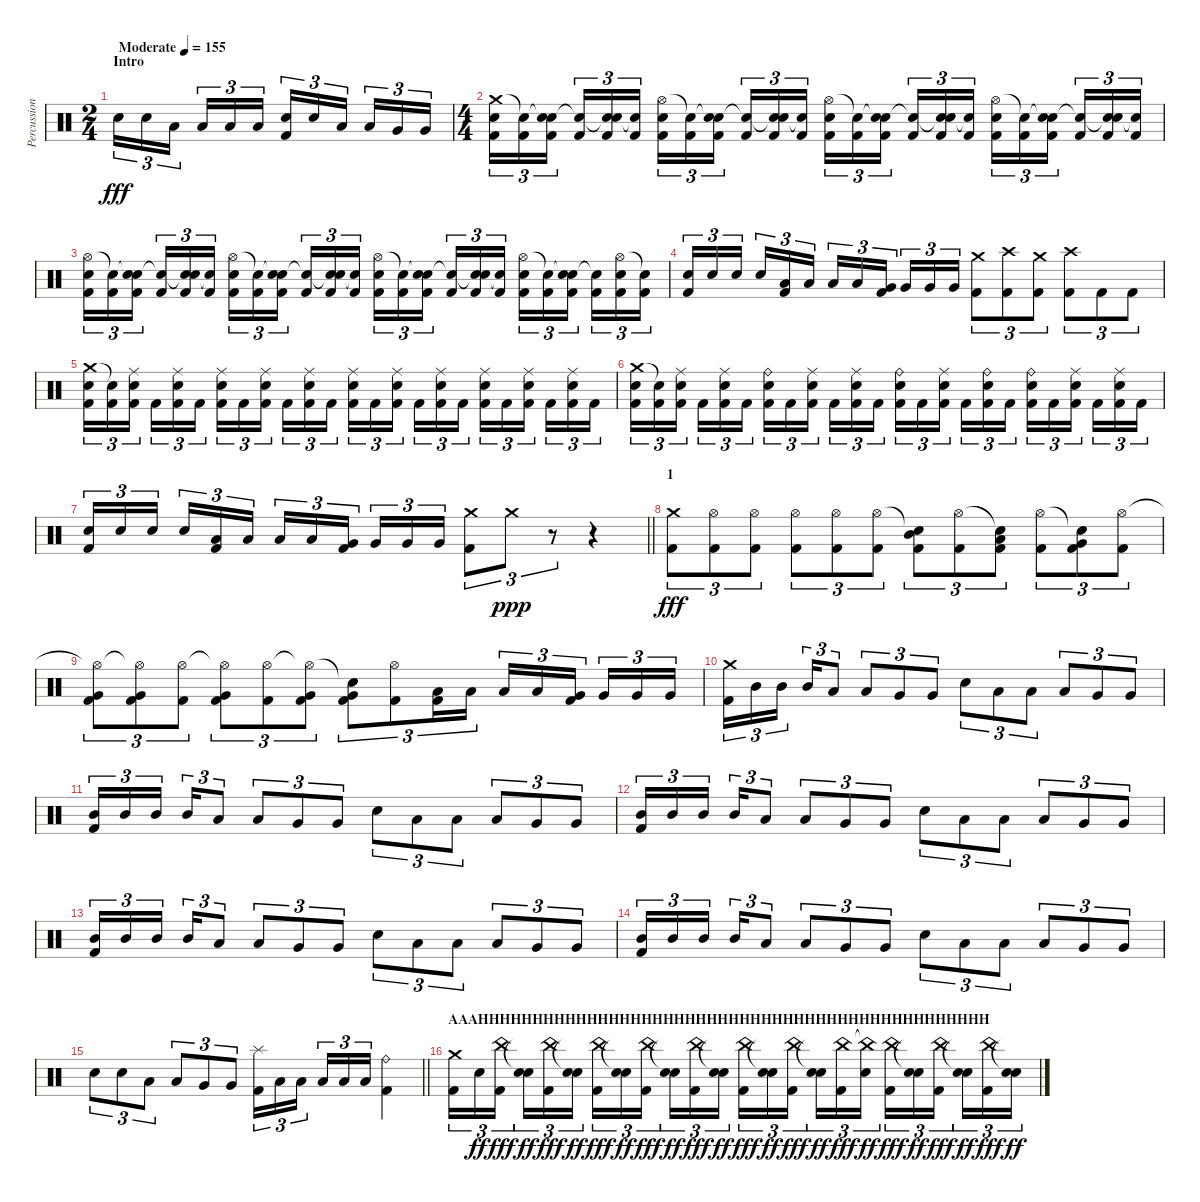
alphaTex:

\track ("Percussion" "Percussion") {instrument percussion}
\staff {score}
\articulation defaults
\ts (2 4)
\section ("" "Intro")
\tempo (155 "Moderate")
\clef neutral
\ks c "Electric Snare (hit)".16{tu (3 2) dy fff} "Electric Snare (hit)".16{tu (3 2)} "Low Tom (hit)".16{tu (3 2) beam splitsecondary} "Low Tom (hit)".16{tu (3 2)} "Low Tom (hit)".16{tu (3 2)} "Low Tom (hit)".16{tu (3 2)}
("Electric Snare (hit)" "Kick (hit) 2").16{tu (3 2)} "Electric Snare (hit)".16{tu (3 2)} "Low Tom (hit)".16{tu (3 2) beam splitsecondary} "Low Tom (hit)".16{tu (3 2)} "Very Low Tom (hit)".16{tu (3 2)} "Very Low Tom (hit)".16{tu (3 2)} |
\ts (4 4)
("Crash medium (hit)" "Electric Snare (hit)" "Kick (hit) 2").16{tu (3 2)} ("Snare (hit)"{t} "Kick (hit) 2").16{tu (3 2)} ("Snare (hit)"{t} "Electric Snare (hit)" "Kick (hit) 2").16{tu (3 2) beam splitsecondary} ("Snare (hit)"{t} "Kick (hit) 2").16{tu (3 2)} ("Snare (hit)"{t} "Electric Snare (hit)" "Kick (hit) 2").16{tu (3 2)} ("Snare (hit)"{t} "Kick (hit) 2").16{tu (3 2)} ("Hi-Hat (open)" "Electric Snare (hit)" "Kick (hit) 2").16{tu (3 2)} ("Snare (hit)"{t} "Kick (hit) 2").16{tu (3 2)} ("Snare (hit)"{t} "Electric Snare (hit)" "Kick (hit) 2").16{tu (3 2) beam splitsecondary} ("Snare (hit)"{t} "Kick (hit) 2").16{tu (3 2)} ("Snare (hit)"{t} "Electric Snare (hit)" "Kick (hit) 2").16{tu (3 2)} ("Snare (hit)"{t} "Kick (hit) 2").16{tu (3 2)} ("Hi-Hat (open)" "Electric Snare (hit)" "Kick (hit) 2").16{tu (3 2)} ("Snare (hit)"{t} "Kick (hit) 2").16{tu (3 2)} ("Snare (hit)"{t} "Electric Snare (hit)" "Kick (hit) 2").16{tu (3 2) beam splitsecondary} ("Snare (hit)"{t} "Kick (hit) 2").16{tu (3 2)} ("Snare (hit)"{t} "Electric Snare (hit)" "Kick (hit) 2").16{tu (3 2)} ("Snare (hit)"{t} "Kick (hit) 2").16{tu (3 2)} ("Hi-Hat (open)" "Electric Snare (hit)" "Kick (hit) 2").16{tu (3 2)} ("Snare (hit)"{t} "Kick (hit) 2").16{tu (3 2)} ("Snare (hit)"{t} "Electric Snare (hit)" "Kick (hit) 2").16{tu (3 2) beam splitsecondary} ("Snare (hit)"{t} "Kick (hit) 2").16{tu (3 2)} ("Snare (hit)"{t} "Electric Snare (hit)" "Kick (hit) 2").16{tu (3 2)} ("Snare (hit)"{t} "Kick (hit) 2").16{tu (3 2)} |
("Hi-Hat (open)" "Electric Snare (hit)" "Kick (hit) 2").16{tu (3 2)} ("Snare (hit)"{t} "Kick (hit) 2").16{tu (3 2)} ("Snare (hit)"{t} "Electric Snare (hit)" "Kick (hit) 2").16{tu (3 2) beam splitsecondary} ("Snare (hit)"{t} "Kick (hit) 2").16{tu (3 2)} ("Snare (hit)"{t} "Electric Snare (hit)" "Kick (hit) 2").16{tu (3 2)} ("Snare (hit)"{t} "Kick (hit) 2").16{tu (3 2)} ("Hi-Hat (open)" "Electric Snare (hit)" "Kick (hit) 2").16{tu (3 2)} ("Snare (hit)"{t} "Kick (hit) 2").16{tu (3 2)} ("Snare (hit)"{t} "Electric Snare (hit)" "Kick (hit) 2").16{tu (3 2) beam splitsecondary} ("Snare (hit)"{t} "Kick (hit) 2").16{tu (3 2)} ("Snare (hit)"{t} "Electric Snare (hit)" "Kick (hit) 2").16{tu (3 2)} ("Snare (hit)"{t} "Kick (hit) 2").16{tu (3 2)} ("Hi-Hat (open)" "Electric Snare (hit)" "Kick (hit) 2").16{tu (3 2)} ("Snare (hit)"{t} "Kick (hit) 2").16{tu (3 2)} ("Snare (hit)"{t} "Electric Snare (hit)" "Kick (hit) 2").16{tu (3 2) beam splitsecondary} ("Snare (hit)"{t} "Kick (hit) 2").16{tu (3 2)} ("Snare (hit)"{t} "Electric Snare (hit)" "Kick (hit) 2").16{tu (3 2)} ("Snare (hit)"{t} "Kick (hit) 2").16{tu (3 2)} ("Hi-Hat (open)" "Electric Snare (hit)" "Kick (hit) 2").16{tu (3 2)} ("Snare (hit)"{t} "Kick (hit) 2").16{tu (3 2)} ("Snare (hit)"{t} "Electric Snare (hit)" "Kick (hit) 2").16{tu (3 2) beam splitsecondary} ("Snare (hit)"{t} "Kick (hit) 2").16{tu (3 2)} ("Hi-Hat (open)" "Electric Snare (hit)" "Kick (hit) 2").16{tu (3 2)} ("Snare (hit)"{t} "Kick (hit) 2").16{tu (3 2)} |
("Electric Snare (hit)" "Kick (hit) 2").16{tu (3 2)} "Electric Snare (hit)".16{tu (3 2)} "Electric Snare (hit)".16{tu (3 2) beam splitsecondary} "Electric Snare (hit)".16{tu (3 2)} ("Low Tom (hit)" "Kick (hit) 2").16{tu (3 2)} "Low Tom (hit)".16{tu (3 2)} "Low Tom (hit)".16{tu (3 2)} "Low Tom (hit)".16{tu (3 2)} ("Very Low Tom (hit)" "Kick (hit) 2").16{tu (3 2) beam splitsecondary} "Very Low Tom (hit)".16{tu (3 2)} "Very Low Tom (hit)".16{tu (3 2)} "Very Low Tom (hit)".16{tu (3 2)} ("Crash medium (hit)" "Kick (hit) 2").8{tu (3 2)} ("Crash high (hit)" "Kick (hit) 2").8{tu (3 2)} ("Crash medium (hit)" "Kick (hit) 2").8{tu (3 2)} ("Crash high (hit)" "Kick (hit) 2").8{tu (3 2)} "Kick (hit) 2".8{tu (3 2)} "Kick (hit) 2".8{tu (3 2)} |
("Crash medium (hit)" "Electric Snare (hit)" "Kick (hit) 2").16{tu (3 2)} ("Snare (hit)"{t} "Kick (hit) 2").16{tu (3 2)} ("Ride (middle)" "Electric Snare (hit)" "Kick (hit) 2").16{tu (3 2) beam splitsecondary} "Kick (hit) 2".16{tu (3 2)} ("Ride (middle)" "Electric Snare (hit)" "Kick (hit) 2").16{tu (3 2)} "Kick (hit) 2".16{tu (3 2)} ("Ride (middle)" "Electric Snare (hit)" "Kick (hit) 2").16{tu (3 2)} "Kick (hit) 2".16{tu (3 2)} ("Ride (middle)" "Electric Snare (hit)" "Kick (hit) 2").16{tu (3 2) beam splitsecondary} "Kick (hit) 2".16{tu (3 2)} ("Ride (middle)" "Electric Snare (hit)" "Kick (hit) 2").16{tu (3 2)} "Kick (hit) 2".16{tu (3 2)} ("Ride (middle)" "Electric Snare (hit)" "Kick (hit) 2").16{tu (3 2)} "Kick (hit) 2".16{tu (3 2)} ("Ride (middle)" "Electric Snare (hit)" "Kick (hit) 2").16{tu (3 2) beam splitsecondary} "Kick (hit) 2".16{tu (3 2)} ("Ride (middle)" "Electric Snare (hit)" "Kick (hit) 2").16{tu (3 2)} "Kick (hit) 2".16{tu (3 2)} ("Ride (middle)" "Electric Snare (hit)" "Kick (hit) 2").16{tu (3 2)} "Kick (hit) 2".16{tu (3 2)} ("Ride (middle)" "Electric Snare (hit)" "Kick (hit) 2").16{tu (3 2) beam splitsecondary} "Kick (hit) 2".16{tu (3 2)} ("Ride (middle)" "Electric Snare (hit)" "Kick (hit) 2").16{tu (3 2)} "Kick (hit) 2".16{tu (3 2)} |
("Crash medium (hit)" "Electric Snare (hit)" "Kick (hit) 2").16{tu (3 2)} ("Snare (hit)"{t} "Kick (hit) 2").16{tu (3 2)} ("Ride (middle)" "Electric Snare (hit)" "Kick (hit) 2").16{tu (3 2) beam splitsecondary} "Kick (hit) 2".16{tu (3 2)} ("Ride (middle)" "Electric Snare (hit)" "Kick (hit) 2").16{tu (3 2)} "Kick (hit) 2".16{tu (3 2)} ("Ride (bell)" "Electric Snare (hit)" "Kick (hit) 2").16{tu (3 2)} "Kick (hit) 2".16{tu (3 2)} ("Ride (middle)" "Electric Snare (hit)" "Kick (hit) 2").16{tu (3 2) beam splitsecondary} "Kick (hit) 2".16{tu (3 2)} ("Ride (middle)" "Electric Snare (hit)" "Kick (hit) 2").16{tu (3 2)} "Kick (hit) 2".16{tu (3 2)} ("Ride (bell)" "Electric Snare (hit)" "Kick (hit) 2").16{tu (3 2)} "Kick (hit) 2".16{tu (3 2)} ("Ride (middle)" "Electric Snare (hit)" "Kick (hit) 2").16{tu (3 2) beam splitsecondary} "Kick (hit) 2".16{tu (3 2)} ("Ride (bell)" "Electric Snare (hit)" "Kick (hit) 2").16{tu (3 2)} "Kick (hit) 2".16{tu (3 2)} ("Ride (bell)" "Electric Snare (hit)" "Kick (hit) 2").16{tu (3 2)} "Kick (hit) 2".16{tu (3 2)} ("Ride (middle)" "Electric Snare (hit)" "Kick (hit) 2").16{tu (3 2) beam splitsecondary} "Kick (hit) 2".16{tu (3 2)} ("Ride (middle)" "Electric Snare (hit)" "Kick (hit) 2").16{tu (3 2)} "Kick (hit) 2".16{tu (3 2)} |
\barLineRight lightlight
("Electric Snare (hit)" "Kick (hit) 2").16{tu (3 2)} "Electric Snare (hit)".16{tu (3 2)} "Electric Snare (hit)".16{tu (3 2) beam splitsecondary} "Electric Snare (hit)".16{tu (3 2)} ("Low Tom (hit)" "Kick (hit) 2").16{tu (3 2)} "Low Tom (hit)".16{tu (3 2)} "Low Tom (hit)".16{tu (3 2)} "Low Tom (hit)".16{tu (3 2)} ("Very Low Tom (hit)" "Kick (hit) 2").16{tu (3 2) beam splitsecondary} "Very Low Tom (hit)".16{tu (3 2)} "Very Low Tom (hit)".16{tu (3 2)} "Very Low Tom (hit)".16{tu (3 2)} ("Crash medium (hit)" "Kick (hit) 2").8{tu (3 2)} "Crash medium (hit)".8{tu (3 2) dy ppp} r.8{tu (3 2)} r.4 |
\section ("" "1")
("Crash medium (hit)" "Kick (hit) 2").8{tu (3 2) dy fff} ("Hi-Hat (open)" "Kick (hit) 2").8{tu (3 2)} ("Hi-Hat (open)" "Kick (hit) 2").8{tu (3 2)} ("Hi-Hat (open)" "Kick (hit) 2").8{tu (3 2)} ("Hi-Hat (open)" "Kick (hit) 2").8{tu (3 2)} ("Hi-Hat (open)" "Kick (hit) 2").8{tu (3 2)} ("Snare (hit)"{t} "Mid Tom (hit)" "Kick (hit) 2").8{tu (3 2)} ("Hi-Hat (open)" "Kick (hit) 2").8{tu (3 2)} ("Snare (hit)"{t} "Low Tom (hit)" "Kick (hit) 2").8{tu (3 2)} ("Hi-Hat (open)" "Kick (hit) 2").8{tu (3 2)} ("Snare (hit)"{t} "Very Low Tom (hit)" "Kick (hit) 2").8{tu (3 2)} ("Hi-Hat (open)" "Kick (hit) 2").8{tu (3 2)} |
("Hi-Hat (open)"{t} "Very Low Tom (hit)" "Kick (hit) 2").8{tu (3 2)} ("Hi-Hat (open)"{t} "Very Low Tom (hit)" "Kick (hit) 2").8{tu (3 2)} ("Hi-Hat (open)" "Kick (hit) 2").8{tu (3 2)} ("Hi-Hat (open)"{t} "Very Low Tom (hit)" "Kick (hit) 2").8{tu (3 2)} ("Hi-Hat (open)" "Kick (hit) 2").8{tu (3 2)} ("Hi-Hat (open)"{t} "Very Low Tom (hit)" "Kick (hit) 2").8{tu (3 2)} ("Snare (hit)"{t} "Very Low Tom (hit)" "Kick (hit) 2").8{tu (3 2)} ("Hi-Hat (open)" "Kick (hit) 2").8{tu (3 2)} ("Low Tom (hit)" "Kick (hit) 2").16{tu (3 2)} "Low Tom (hit)".16{tu (3 2)} "Low Tom (hit)".16{tu (3 2)} "Low Tom (hit)".16{tu (3 2)} ("Very Low Tom (hit)" "Kick (hit) 2").16{tu (3 2) beam splitsecondary} "Very Low Tom (hit)".16{tu (3 2)} "Very Low Tom (hit)".16{tu (3 2)} "Very Low Tom (hit)".16{tu (3 2)} |
("Crash medium (hit)" "Kick (hit) 2").16{tu (3 2)} "Mid Tom (hit)".16{tu (3 2)} "Mid Tom (hit)".16{tu (3 2) beam splitsecondary} "Mid Tom (hit)".16{tu (3 2)} "Low Tom (hit)".8{tu (3 2)} "Low Tom (hit)".8{tu (3 2)} "Very Low Tom (hit)".8{tu (3 2)} "Very Low Tom (hit)".8{tu (3 2)} "Electric Snare (hit)".8{tu (3 2)} "Low Tom (hit)".8{tu (3 2)} "Low Tom (hit)".8{tu (3 2)} "Low Tom (hit)".8{tu (3 2)} "Very Low Tom (hit)".8{tu (3 2)} "Very Low Tom (hit)".8{tu (3 2)} |
("Mid Tom (hit)" "Kick (hit) 2").16{tu (3 2)} "Mid Tom (hit)".16{tu (3 2)} "Mid Tom (hit)".16{tu (3 2) beam splitsecondary} "Mid Tom (hit)".16{tu (3 2)} "Low Tom (hit)".8{tu (3 2)} "Low Tom (hit)".8{tu (3 2)} "Very Low Tom (hit)".8{tu (3 2)} "Very Low Tom (hit)".8{tu (3 2)} "Electric Snare (hit)".8{tu (3 2)} "Low Tom (hit)".8{tu (3 2)} "Low Tom (hit)".8{tu (3 2)} "Low Tom (hit)".8{tu (3 2)} "Very Low Tom (hit)".8{tu (3 2)} "Very Low Tom (hit)".8{tu (3 2)} |
("Mid Tom (hit)" "Kick (hit) 2").16{tu (3 2)} "Mid Tom (hit)".16{tu (3 2)} "Mid Tom (hit)".16{tu (3 2) beam splitsecondary} "Mid Tom (hit)".16{tu (3 2)} "Low Tom (hit)".8{tu (3 2)} "Low Tom (hit)".8{tu (3 2)} "Very Low Tom (hit)".8{tu (3 2)} "Very Low Tom (hit)".8{tu (3 2)} "Electric Snare (hit)".8{tu (3 2)} "Low Tom (hit)".8{tu (3 2)} "Low Tom (hit)".8{tu (3 2)} "Low Tom (hit)".8{tu (3 2)} "Very Low Tom (hit)".8{tu (3 2)} "Very Low Tom (hit)".8{tu (3 2)} |
("Mid Tom (hit)" "Kick (hit) 2").16{tu (3 2)} "Mid Tom (hit)".16{tu (3 2)} "Mid Tom (hit)".16{tu (3 2) beam splitsecondary} "Mid Tom (hit)".16{tu (3 2)} "Low Tom (hit)".8{tu (3 2)} "Low Tom (hit)".8{tu (3 2)} "Very Low Tom (hit)".8{tu (3 2)} "Very Low Tom (hit)".8{tu (3 2)} "Electric Snare (hit)".8{tu (3 2)} "Low Tom (hit)".8{tu (3 2)} "Low Tom (hit)".8{tu (3 2)} "Low Tom (hit)".8{tu (3 2)} "Very Low Tom (hit)".8{tu (3 2)} "Very Low Tom (hit)".8{tu (3 2)} |
("Mid Tom (hit)" "Kick (hit) 2").16{tu (3 2)} "Mid Tom (hit)".16{tu (3 2)} "Mid Tom (hit)".16{tu (3 2) beam splitsecondary} "Mid Tom (hit)".16{tu (3 2)} "Low Tom (hit)".8{tu (3 2)} "Low Tom (hit)".8{tu (3 2)} "Very Low Tom (hit)".8{tu (3 2)} "Very Low Tom (hit)".8{tu (3 2)} "Electric Snare (hit)".8{tu (3 2)} "Low Tom (hit)".8{tu (3 2)} "Low Tom (hit)".8{tu (3 2)} "Low Tom (hit)".8{tu (3 2)} "Very Low Tom (hit)".8{tu (3 2)} "Very Low Tom (hit)".8{tu (3 2)} |
\barLineRight lightlight "Electric Snare (hit)".8{tu (3 2)} "Electric Snare (hit)".8{tu (3 2)} "Low Tom (hit)".8{tu (3 2)} "Low Tom (hit)".8{tu (3 2)} "Very Low Tom (hit)".8{tu (3 2)} "Very Low Tom (hit)".8{tu (3 2)}
("Splash (hit)" "Kick (hit) 2").16{tu (3 2)} "Low Tom (hit)".16{tu (3 2)} "Low Tom (hit)".16{tu (3 2) beam splitsecondary} "Low Tom (hit)".16{tu (3 2)} "Low Tom (hit)".16{tu (3 2)} "Low Tom (hit)".16{tu (3 2)} ("Ride (bell)" "Kick (hit) 2").4 |
\section ("" "AAAHHHHHHHHHHHHHHHHHHHHHHHHHHHHHHHHHHHHHHHHHHHHHHH")
("Crash medium (hit)" "Kick (hit) 2").16{tu (3 2)} "Electric Snare (hit)".16{tu (3 2) dy ff} ("China (hit)" "Kick (hit) 2").16{tu (3 2) dy fff beam splitsecondary} ("Snare (hit)"{t} "Electric Snare (hit)").16{tu (3 2) dy ff} ("China (hit)" "Kick (hit) 2").16{tu (3 2) dy fff} ("Snare (hit)"{t} "Electric Snare (hit)").16{tu (3 2) dy ff} ("China (hit)" "Kick (hit) 2").16{tu (3 2) dy fff} ("Snare (hit)"{t} "Electric Snare (hit)").16{tu (3 2) dy ff} ("China (hit)" "Kick (hit) 2").16{tu (3 2) dy fff beam splitsecondary} ("Snare (hit)"{t} "Electric Snare (hit)").16{tu (3 2) dy ff} ("China (hit)" "Kick (hit) 2").16{tu (3 2) dy fff} ("Snare (hit)"{t} "Electric Snare (hit)").16{tu (3 2) dy ff} ("China (hit)" "Kick (hit) 2").16{tu (3 2) dy fff} ("Snare (hit)"{t} "Electric Snare (hit)").16{tu (3 2) dy ff} ("China (hit)" "Kick (hit) 2").16{tu (3 2) dy fff beam splitsecondary} ("Snare (hit)"{t} "Electric Snare (hit)").16{tu (3 2) dy ff} ("China (hit)" "Kick (hit) 2").16{tu (3 2) dy fff} ("China (hit)"{t} "Electric Snare (hit)").16{tu (3 2) dy ff} ("China (hit)" "Kick (hit) 2").16{tu (3 2) dy fff} ("Snare (hit)"{t} "Electric Snare (hit)").16{tu (3 2) dy ff} ("China (hit)" "Kick (hit) 2").16{tu (3 2) dy fff beam splitsecondary} ("Snare (hit)"{t} "Electric Snare (hit)").16{tu (3 2) dy ff} ("China (hit)" "Kick (hit) 2").16{tu (3 2) dy fff} ("Snare (hit)"{t} "Electric Snare (hit)").16{tu (3 2) dy ff}
